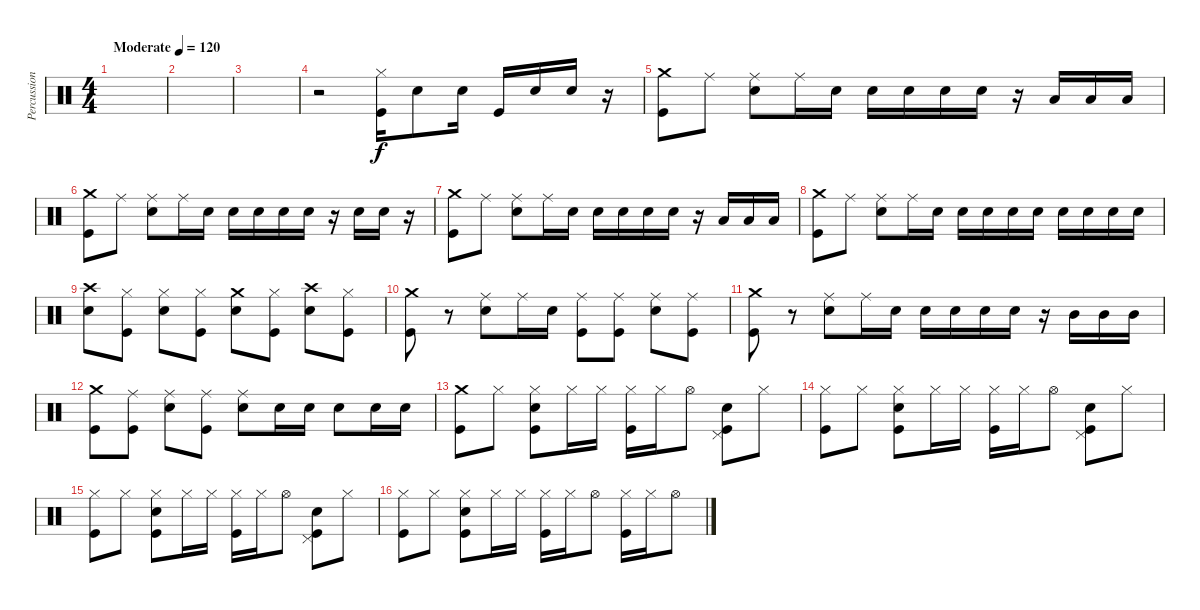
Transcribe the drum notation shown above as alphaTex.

\track ("Percussion" "Percussion") {instrument percussion}
\staff {score}
\articulation defaults
\ts (4 4)
\tempo (120 "Moderate")
\clef neutral
\ks c
|
|
|
r.2 ("Hi-Hat (closed)" "Kick (hit)").16 "Snare (hit) 2".8 "Snare (hit) 2".16 "Kick (hit)".16 "Snare (hit) 2".16 "Snare (hit) 2".16 r.16 |
("Crash medium (hit)" "Kick (hit)").8 "Ride (middle)".8 ("Ride (middle)" "Snare (hit) 2").8 "Ride (middle)".16 "Snare (hit) 2".16 "Snare (hit) 2".16 "Snare (hit) 2".16 "Snare (hit) 2".16 "Snare (hit) 2".16 r.16 "Low Tom (hit)".16 "Low Tom (hit)".16 "Low Tom (hit)".16 |
("Crash medium (hit)" "Kick (hit)").8 "Ride (middle)".8 ("Ride (middle)" "Snare (hit) 2").8 "Ride (middle)".16 "Snare (hit) 2".16 "Snare (hit) 2".16 "Snare (hit) 2".16 "Snare (hit) 2".16 "Snare (hit) 2".16 r.16 "Snare (hit) 2".16 "Snare (hit) 2".16 r.16 |
("Crash medium (hit)" "Kick (hit)").8 "Ride (middle)".8 ("Ride (middle)" "Snare (hit) 2").8 "Ride (middle)".16 "Snare (hit) 2".16 "Snare (hit) 2".16 "Snare (hit) 2".16 "Snare (hit) 2".16 "Snare (hit) 2".16 r.16 "Low Tom (hit)".16 "Low Tom (hit)".16 "Low Tom (hit)".16 |
("Crash medium (hit)" "Kick (hit)").8 "Ride (middle)".8 ("Ride (middle)" "Snare (hit) 2").8 "Ride (middle)".16 "Snare (hit) 2".16 "Snare (hit) 2".16 "Snare (hit) 2".16 "Snare (hit) 2".16 "Snare (hit) 2".16 "Snare (hit) 2".16 "Snare (hit) 2".16 "Snare (hit) 2".16 "Snare (hit) 2".16 |
("Crash high (hit)" "Snare (hit) 2").8 ("Hi-Hat (closed)" "Kick (hit)").8 ("Hi-Hat (closed)" "Snare (hit) 2").8 ("Hi-Hat (closed)" "Kick (hit)").8 ("Crash medium (hit)" "Snare (hit) 2").8 ("Hi-Hat (closed)" "Kick (hit)").8 ("Crash high (hit)" "Snare (hit) 2").8 ("Hi-Hat (closed)" "Kick (hit)").8 |
("Crash medium (hit)" "Kick (hit)").8 r.8 ("Ride (middle)" "Snare (hit) 2").8 "Ride (middle)".16 "Snare (hit) 2".16 ("Ride (middle)" "Kick (hit)").8 ("Ride (middle)" "Kick (hit)").8 ("Ride (middle)" "Snare (hit) 2").8 ("Ride (middle)" "Kick (hit)").8 |
("Crash medium (hit)" "Kick (hit)").8 r.8 ("Ride (middle)" "Snare (hit) 2").8 "Ride (middle)".16 "Snare (hit) 2".16 "Snare (hit) 2".16 "Snare (hit) 2".16 "Snare (hit) 2".16 "Snare (hit) 2".16 r.16 "Mid Tom (hit)".16 "Mid Tom (hit)".16 "Mid Tom (hit)".16 |
("Crash medium (hit)" "Kick (hit)").8 ("Ride (middle)" "Kick (hit)").8 ("Ride (middle)" "Snare (hit) 2").8 ("Ride (middle)" "Kick (hit)").8 ("Ride (middle)" "Snare (hit) 2").8 "Snare (hit) 2".16 "Snare (hit) 2".16 "Snare (hit) 2".8 "Snare (hit) 2".16 "Snare (hit) 2".16 |
("Crash medium (hit)" "Kick (hit)").8 "Hi-Hat (closed)".8 ("Snare (hit) 2" "Hi-Hat (closed)" "Kick (hit)").8 "Hi-Hat (closed)".16 "Hi-Hat (closed)".16 ("Hi-Hat (closed)" "Kick (hit)").16 "Hi-Hat (closed)".16 "Hi-Hat (open)".8 ("Snare (hit) 2" "Pedal Hi-Hat (hit)" "Kick (hit)").8 "Hi-Hat (closed)".8 |
("Hi-Hat (closed)" "Kick (hit)").8 "Hi-Hat (closed)".8 ("Snare (hit) 2" "Hi-Hat (closed)" "Kick (hit)").8 "Hi-Hat (closed)".16 "Hi-Hat (closed)".16 ("Hi-Hat (closed)" "Kick (hit)").16 "Hi-Hat (closed)".16 "Hi-Hat (open)".8 ("Snare (hit) 2" "Pedal Hi-Hat (hit)" "Kick (hit)").8 "Hi-Hat (closed)".8 |
("Hi-Hat (closed)" "Kick (hit)").8 "Hi-Hat (closed)".8 ("Snare (hit) 2" "Hi-Hat (closed)" "Kick (hit)").8 "Hi-Hat (closed)".16 "Hi-Hat (closed)".16 ("Hi-Hat (closed)" "Kick (hit)").16 "Hi-Hat (closed)".16 "Hi-Hat (open)".8 ("Snare (hit) 2" "Pedal Hi-Hat (hit)" "Kick (hit)").8 "Hi-Hat (closed)".8 |
("Hi-Hat (closed)" "Kick (hit)").8 "Hi-Hat (closed)".8 ("Snare (hit) 2" "Hi-Hat (closed)" "Kick (hit)").8 "Hi-Hat (closed)".16 "Hi-Hat (closed)".16 ("Hi-Hat (closed)" "Kick (hit)").16 "Hi-Hat (closed)".16 "Hi-Hat (open)".8 ("Hi-Hat (closed)" "Kick (hit)").16 "Hi-Hat (closed)".16 "Hi-Hat (open)".8
